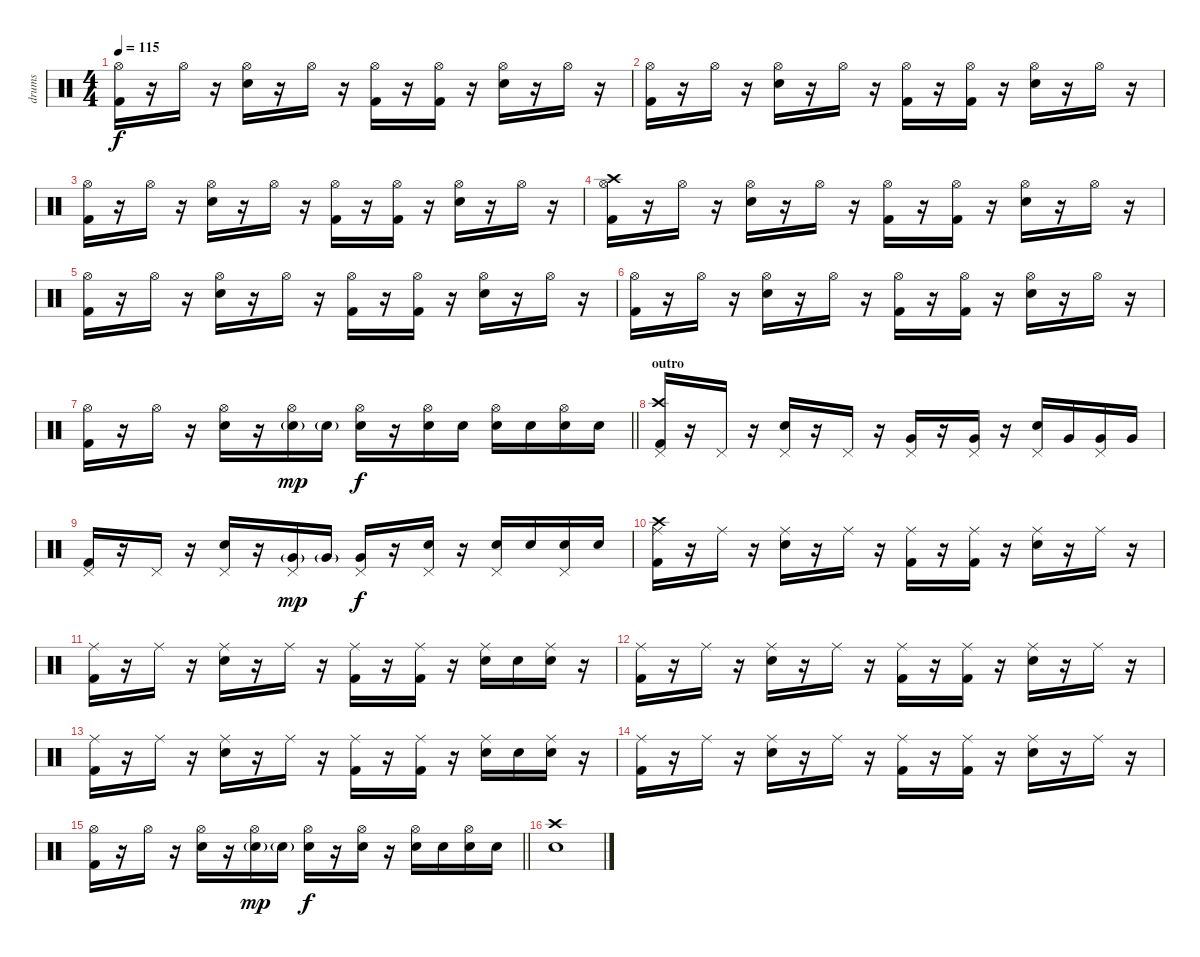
\track ("drums" "drums") {instrument percussion}
\staff {score}
\articulation defaults
\ts (4 4)
\tempo 115
\clef neutral
\ks c
("Kick (hit) 2" "Hi-Hat (open)").16{dy f} r.16 "Hi-Hat (open)".16 r.16 ("Electric Snare (hit)" "Hi-Hat (open)").16 r.16 "Hi-Hat (open)".16 r.16 ("Kick (hit) 2" "Hi-Hat (open)").16 r.16 ("Kick (hit) 2" "Hi-Hat (open)").16 r.16 ("Electric Snare (hit)" "Hi-Hat (open)").16 r.16 "Hi-Hat (open)".16 r.16 |
("Kick (hit) 2" "Hi-Hat (open)").16 r.16 "Hi-Hat (open)".16 r.16 ("Electric Snare (hit)" "Hi-Hat (open)").16 r.16 "Hi-Hat (open)".16 r.16 ("Kick (hit) 2" "Hi-Hat (open)").16 r.16 ("Kick (hit) 2" "Hi-Hat (open)").16 r.16 ("Electric Snare (hit)" "Hi-Hat (open)").16 r.16 "Hi-Hat (open)".16 r.16 |
("Kick (hit) 2" "Hi-Hat (open)").16 r.16 "Hi-Hat (open)".16 r.16 ("Electric Snare (hit)" "Hi-Hat (open)").16 r.16 "Hi-Hat (open)".16 r.16 ("Kick (hit) 2" "Hi-Hat (open)").16 r.16 ("Kick (hit) 2" "Hi-Hat (open)").16 r.16 ("Electric Snare (hit)" "Hi-Hat (open)").16 r.16 "Hi-Hat (open)".16 r.16 |
("Kick (hit) 2" "Hi-Hat (open)" "Crash high (hit)").16 r.16 "Hi-Hat (open)".16 r.16 ("Electric Snare (hit)" "Hi-Hat (open)").16 r.16 "Hi-Hat (open)".16 r.16 ("Kick (hit) 2" "Hi-Hat (open)").16 r.16 ("Kick (hit) 2" "Hi-Hat (open)").16 r.16 ("Electric Snare (hit)" "Hi-Hat (open)").16 r.16 "Hi-Hat (open)".16 r.16 |
("Kick (hit) 2" "Hi-Hat (open)").16 r.16 "Hi-Hat (open)".16 r.16 ("Electric Snare (hit)" "Hi-Hat (open)").16 r.16 "Hi-Hat (open)".16 r.16 ("Kick (hit) 2" "Hi-Hat (open)").16 r.16 ("Kick (hit) 2" "Hi-Hat (open)").16 r.16 ("Electric Snare (hit)" "Hi-Hat (open)").16 r.16 "Hi-Hat (open)".16 r.16 |
("Kick (hit) 2" "Hi-Hat (open)").16 r.16 "Hi-Hat (open)".16 r.16 ("Electric Snare (hit)" "Hi-Hat (open)").16 r.16 "Hi-Hat (open)".16 r.16 ("Kick (hit) 2" "Hi-Hat (open)").16 r.16 ("Kick (hit) 2" "Hi-Hat (open)").16 r.16 ("Electric Snare (hit)" "Hi-Hat (open)").16 r.16 "Hi-Hat (open)".16 r.16 |
\barLineRight lightlight
("Kick (hit) 2" "Hi-Hat (open)").16 r.16 "Hi-Hat (open)".16 r.16 ("Electric Snare (hit)" "Hi-Hat (open)").16 r.16 ("Electric Snare (hit)"{g} "Hi-Hat (open)").16{dy mp} "Electric Snare (hit)"{g}.16 ("Electric Snare (hit)" "Hi-Hat (open)").16{dy f} r.16 ("Electric Snare (hit)" "Hi-Hat (open)").16 "Electric Snare (hit)".16 ("Electric Snare (hit)" "Hi-Hat (open)").16 "Electric Snare (hit)".16 ("Electric Snare (hit)" "Hi-Hat (open)").16 "Electric Snare (hit)".16 |
\section ("" "outro")
("Kick (hit) 2" "Pedal Hi-Hat (hit)" "Crash high (hit)").16 r.16 "Pedal Hi-Hat (hit)".16 r.16 ("Electric Snare (hit)" "Pedal Hi-Hat (hit)").16 r.16 "Pedal Hi-Hat (hit)".16 r.16 ("Very Low Tom (hit)" "Pedal Hi-Hat (hit)").16 r.16 ("Very Low Tom (hit)" "Pedal Hi-Hat (hit)").16 r.16 ("Electric Snare (hit)" "Pedal Hi-Hat (hit)").16 "Very Low Tom (hit)".16 ("Very Low Tom (hit)" "Pedal Hi-Hat (hit)").16 "Very Low Tom (hit)".16 |
("Kick (hit) 2" "Pedal Hi-Hat (hit)").16 r.16 "Pedal Hi-Hat (hit)".16 r.16 ("Electric Snare (hit)" "Pedal Hi-Hat (hit)").16 r.16 ("Very Low Tom (hit)"{g} "Pedal Hi-Hat (hit)").16{dy mp} "Very Low Tom (hit)"{g}.16 ("Very Low Tom (hit)" "Pedal Hi-Hat (hit)").16{dy f} r.16 ("Electric Snare (hit)" "Pedal Hi-Hat (hit)").16 r.16 ("Electric Snare (hit)" "Pedal Hi-Hat (hit)").16 "Electric Snare (hit)".16 ("Electric Snare (hit)" "Pedal Hi-Hat (hit)").16 "Electric Snare (hit)".16 |
("Kick (hit) 2" "Ride (middle)" "Crash high (hit)").16 r.16 "Ride (middle)".16 r.16 ("Electric Snare (hit)" "Ride (middle)").16 r.16 "Ride (middle)".16 r.16 ("Kick (hit) 2" "Ride (middle)").16 r.16 ("Kick (hit) 2" "Ride (middle)").16 r.16 ("Electric Snare (hit)" "Ride (middle)").16 r.16 "Ride (middle)".16 r.16 |
("Kick (hit) 2" "Ride (middle)").16 r.16 "Ride (middle)".16 r.16 ("Electric Snare (hit)" "Ride (middle)").16 r.16 "Ride (middle)".16 r.16 ("Kick (hit) 2" "Ride (middle)").16 r.16 ("Kick (hit) 2" "Ride (middle)").16 r.16 ("Electric Snare (hit)" "Ride (middle)").16 "Electric Snare (hit)".16 ("Electric Snare (hit)" "Ride (middle)").16 r.16 |
("Kick (hit) 2" "Ride (middle)").16 r.16 "Ride (middle)".16 r.16 ("Electric Snare (hit)" "Ride (middle)").16 r.16 "Ride (middle)".16 r.16 ("Kick (hit) 2" "Ride (middle)").16 r.16 ("Kick (hit) 2" "Ride (middle)").16 r.16 ("Electric Snare (hit)" "Ride (middle)").16 r.16 "Ride (middle)".16 r.16 |
("Kick (hit) 2" "Ride (middle)").16 r.16 "Ride (middle)".16 r.16 ("Electric Snare (hit)" "Ride (middle)").16 r.16 "Ride (middle)".16 r.16 ("Kick (hit) 2" "Ride (middle)").16 r.16 ("Kick (hit) 2" "Ride (middle)").16 r.16 ("Electric Snare (hit)" "Ride (middle)").16 "Electric Snare (hit)".16 ("Electric Snare (hit)" "Ride (middle)").16 r.16 |
("Kick (hit) 2" "Ride (middle)").16 r.16 "Ride (middle)".16 r.16 ("Electric Snare (hit)" "Ride (middle)").16 r.16 "Ride (middle)".16 r.16 ("Kick (hit) 2" "Ride (middle)").16 r.16 ("Kick (hit) 2" "Ride (middle)").16 r.16 ("Electric Snare (hit)" "Ride (middle)").16 r.16 "Ride (middle)".16 r.16 |
\barLineRight lightlight
("Kick (hit) 2" "Hi-Hat (open)").16 r.16 "Hi-Hat (open)".16 r.16 ("Electric Snare (hit)" "Hi-Hat (open)").16 r.16 ("Electric Snare (hit)"{g} "Hi-Hat (open)").16{dy mp} "Electric Snare (hit)"{g}.16 ("Electric Snare (hit)" "Hi-Hat (open)").16{dy f} r.16 ("Electric Snare (hit)" "Hi-Hat (open)").16 r.16 ("Electric Snare (hit)" "Hi-Hat (open)").16 "Electric Snare (hit)".16 ("Electric Snare (hit)" "Hi-Hat (open)").16 "Electric Snare (hit)".16 |
("Electric Snare (hit)" "Crash high (hit)").1
